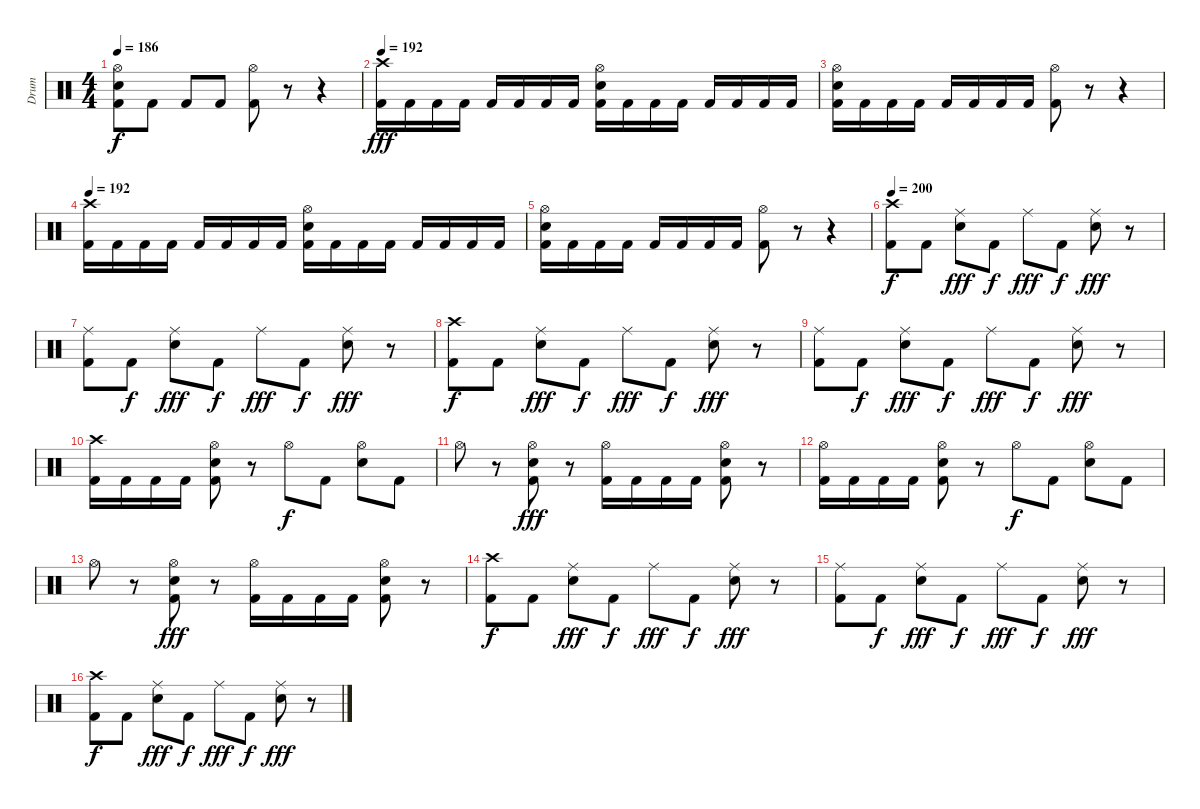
\track ("Drum" "Drum") {instrument percussion}
\staff {score}
\articulation defaults
\ts (4 4)
\tempo 186
\clef neutral
\ks c
("Hi-Hat (open)" "Electric Snare (hit)" "Kick (hit) 2").8{dy f} "Kick (hit) 2".8 "Kick (hit) 2".8 "Kick (hit) 2".8 ("Hi-Hat (open)" "Kick (hit) 2").8 r.8 r.4 |
\tempo 192
("Crash high (hit)" "Kick (hit) 2").16{dy fff} "Kick (hit) 2".16 "Kick (hit) 2".16 "Kick (hit) 2".16 "Kick (hit) 2".16 "Kick (hit) 2".16 "Kick (hit) 2".16 "Kick (hit) 2".16 ("Hi-Hat (open)" "Electric Snare (hit)" "Kick (hit) 2").16 "Kick (hit) 2".16 "Kick (hit) 2".16 "Kick (hit) 2".16 "Kick (hit) 2".16 "Kick (hit) 2".16 "Kick (hit) 2".16 "Kick (hit) 2".16 |
("Hi-Hat (open)" "Electric Snare (hit)" "Kick (hit) 2").16 "Kick (hit) 2".16 "Kick (hit) 2".16 "Kick (hit) 2".16 "Kick (hit) 2".16 "Kick (hit) 2".16 "Kick (hit) 2".16 "Kick (hit) 2".16 ("Hi-Hat (open)" "Kick (hit) 2").8 r.8 r.4 |
\tempo 192
("Crash high (hit)" "Kick (hit) 2").16 "Kick (hit) 2".16 "Kick (hit) 2".16 "Kick (hit) 2".16 "Kick (hit) 2".16 "Kick (hit) 2".16 "Kick (hit) 2".16 "Kick (hit) 2".16 ("Hi-Hat (open)" "Electric Snare (hit)" "Kick (hit) 2").16 "Kick (hit) 2".16 "Kick (hit) 2".16 "Kick (hit) 2".16 "Kick (hit) 2".16 "Kick (hit) 2".16 "Kick (hit) 2".16 "Kick (hit) 2".16 |
("Hi-Hat (open)" "Electric Snare (hit)" "Kick (hit) 2").16 "Kick (hit) 2".16 "Kick (hit) 2".16 "Kick (hit) 2".16 "Kick (hit) 2".16 "Kick (hit) 2".16 "Kick (hit) 2".16 "Kick (hit) 2".16 ("Hi-Hat (open)" "Kick (hit) 2").8 r.8 r.4 |
\tempo 200
("Crash high (hit)" "Kick (hit) 2").8{dy f} "Kick (hit) 2".8 ("Ride (middle)" "Electric Snare (hit)").8{dy fff} "Kick (hit) 2".8{dy f} "Ride (middle)".8{dy fff} "Kick (hit) 2".8{dy f} ("Ride (middle)" "Electric Snare (hit)").8{dy fff} r.8 |
("Ride (middle)" "Kick (hit) 2").8 "Kick (hit) 2".8{dy f} ("Ride (middle)" "Electric Snare (hit)").8{dy fff} "Kick (hit) 2".8{dy f} "Ride (middle)".8{dy fff} "Kick (hit) 2".8{dy f} ("Ride (middle)" "Electric Snare (hit)").8{dy fff} r.8 |
("Crash high (hit)" "Kick (hit) 2").8{dy f} "Kick (hit) 2".8 ("Ride (middle)" "Electric Snare (hit)").8{dy fff} "Kick (hit) 2".8{dy f} "Ride (middle)".8{dy fff} "Kick (hit) 2".8{dy f} ("Ride (middle)" "Electric Snare (hit)").8{dy fff} r.8 |
("Ride (middle)" "Kick (hit) 2").8 "Kick (hit) 2".8{dy f} ("Ride (middle)" "Electric Snare (hit)").8{dy fff} "Kick (hit) 2".8{dy f} "Ride (middle)".8{dy fff} "Kick (hit) 2".8{dy f} ("Ride (middle)" "Electric Snare (hit)").8{dy fff} r.8 |
("Crash high (hit)" "Kick (hit) 2").16 "Kick (hit) 2".16 "Kick (hit) 2".16 "Kick (hit) 2".16 ("Hi-Hat (open)" "Electric Snare (hit)" "Kick (hit) 2").8 r.8 "Hi-Hat (open)".8{dy f} "Kick (hit) 2".8 ("Hi-Hat (open)" "Electric Snare (hit)").8 "Kick (hit) 2".8 |
"Hi-Hat (open)".8 r.8 ("Hi-Hat (open)" "Electric Snare (hit)" "Kick (hit) 2").8{dy fff} r.8 ("Hi-Hat (open)" "Kick (hit) 2").16 "Kick (hit) 2".16 "Kick (hit) 2".16 "Kick (hit) 2".16 ("Hi-Hat (open)" "Electric Snare (hit)" "Kick (hit) 2").8 r.8 |
("Hi-Hat (open)" "Kick (hit) 2").16 "Kick (hit) 2".16 "Kick (hit) 2".16 "Kick (hit) 2".16 ("Hi-Hat (open)" "Electric Snare (hit)" "Kick (hit) 2").8 r.8 "Hi-Hat (open)".8{dy f} "Kick (hit) 2".8 ("Hi-Hat (open)" "Electric Snare (hit)").8 "Kick (hit) 2".8 |
"Hi-Hat (open)".8 r.8 ("Hi-Hat (open)" "Electric Snare (hit)" "Kick (hit) 2").8{dy fff} r.8 ("Hi-Hat (open)" "Kick (hit) 2").16 "Kick (hit) 2".16 "Kick (hit) 2".16 "Kick (hit) 2".16 ("Hi-Hat (open)" "Electric Snare (hit)" "Kick (hit) 2").8 r.8 |
("Crash high (hit)" "Kick (hit) 2").8{dy f} "Kick (hit) 2".8 ("Ride (middle)" "Electric Snare (hit)").8{dy fff} "Kick (hit) 2".8{dy f} "Ride (middle)".8{dy fff} "Kick (hit) 2".8{dy f} ("Ride (middle)" "Electric Snare (hit)").8{dy fff} r.8 |
("Ride (middle)" "Kick (hit) 2").8 "Kick (hit) 2".8{dy f} ("Ride (middle)" "Electric Snare (hit)").8{dy fff} "Kick (hit) 2".8{dy f} "Ride (middle)".8{dy fff} "Kick (hit) 2".8{dy f} ("Ride (middle)" "Electric Snare (hit)").8{dy fff} r.8 |
("Crash high (hit)" "Kick (hit) 2").8{dy f} "Kick (hit) 2".8 ("Ride (middle)" "Electric Snare (hit)").8{dy fff} "Kick (hit) 2".8{dy f} "Ride (middle)".8{dy fff} "Kick (hit) 2".8{dy f} ("Ride (middle)" "Electric Snare (hit)").8{dy fff} r.8
